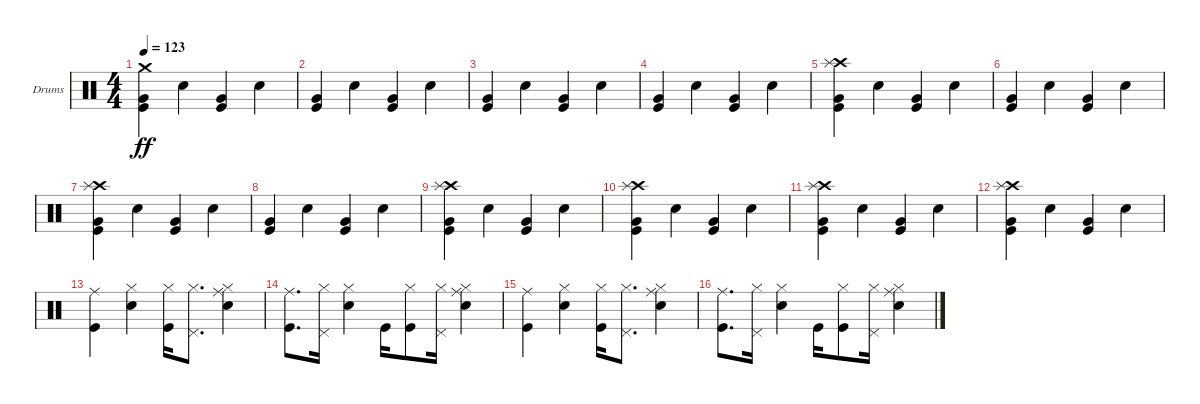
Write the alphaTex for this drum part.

\defaultSystemsLayout 4
\bracketExtendMode groupsimilarinstruments
\firstSystemTrackNameOrientation horizontal
\otherSystemsTrackNameOrientation horizontal
\track ("Drumkit" "Drums") {instrument percussion}
\staff {score}
\articulation defaults
\ts (4 4)
\tempo 123
\clef neutral
\scale
0.333333
\ks c
("Crash medium (hit)" "Kick (hit)" "Very Low Tom (hit)").4{dy ff} "Snare (hit) 2".4 ("Kick (hit)" "Very Low Tom (hit)").4 "Snare (hit) 2".4 |
\scale
0.333333 ("Kick (hit)" "Very Low Tom (hit)").4 "Snare (hit) 2".4 ("Kick (hit)" "Very Low Tom (hit)").4 "Snare (hit) 2".4 |
\scale
0.333333 ("Kick (hit)" "Very Low Tom (hit)").4 "Snare (hit) 2".4 ("Kick (hit)" "Very Low Tom (hit)").4 "Snare (hit) 2".4 |
\scale
0.333333 ("Kick (hit)" "Very Low Tom (hit)").4 "Snare (hit) 2".4 ("Kick (hit)" "Very Low Tom (hit)").4 "Snare (hit) 2".4 |
\scale
0.333333 ("Kick (hit)" "Very Low Tom (hit)" "Crash high (hit)" "Splash (hit)").4 "Snare (hit) 2".4 ("Kick (hit)" "Very Low Tom (hit)").4 "Snare (hit) 2".4 |
\scale
0.333333 ("Kick (hit)" "Very Low Tom (hit)").4 "Snare (hit) 2".4 ("Kick (hit)" "Very Low Tom (hit)").4 "Snare (hit) 2".4 |
\scale
0.333333 ("Kick (hit)" "Very Low Tom (hit)" "Crash high (hit)" "Splash (hit)").4 "Snare (hit) 2".4 ("Kick (hit)" "Very Low Tom (hit)").4 "Snare (hit) 2".4 |
\scale
0.333333 ("Kick (hit)" "Very Low Tom (hit)").4 "Snare (hit) 2".4 ("Kick (hit)" "Very Low Tom (hit)").4 "Snare (hit) 2".4 |
\scale
0.333333 ("Kick (hit)" "Very Low Tom (hit)" "Crash high (hit)" "Splash (hit)").4 "Snare (hit) 2".4 ("Kick (hit)" "Very Low Tom (hit)").4 "Snare (hit) 2".4 |
\scale
0.333333 ("Kick (hit)" "Very Low Tom (hit)" "Crash high (hit)" "Splash (hit)").4 "Snare (hit) 2".4 ("Kick (hit)" "Very Low Tom (hit)").4 "Snare (hit) 2".4 |
\scale
0.333333 ("Kick (hit)" "Very Low Tom (hit)" "Crash high (hit)" "Splash (hit)").4 "Snare (hit) 2".4 ("Kick (hit)" "Very Low Tom (hit)").4 "Snare (hit) 2".4 |
\scale
0.333333 ("Kick (hit)" "Very Low Tom (hit)" "Crash high (hit)" "Splash (hit)").4 "Snare (hit) 2".4 ("Kick (hit)" "Very Low Tom (hit)").4 "Snare (hit) 2".4 |
\scale
0.333333 ("Ride (middle)" "Kick (hit)").4 ("Hi-Hat (closed)" "Snare (hit) 2").4 ("Kick (hit)" "Hi-Hat (closed)").16 ("Hi-Hat (closed)" "Pedal Hi-Hat (hit)").8{d} ("Hi-Hat (closed)" "Snare (hit) 2" "Ride (middle)").4 |
\scale
0.333333 ("Ride (middle)" "Kick (hit)").8{d} ("Hi-Hat (closed)" "Pedal Hi-Hat (hit)").16 ("Hi-Hat (closed)" "Snare (hit) 2").4 "Kick (hit)".16 ("Kick (hit)" "Hi-Hat (closed)").8 ("Hi-Hat (closed)" "Pedal Hi-Hat (hit)").16 ("Hi-Hat (closed)" "Snare (hit) 2" "Ride (middle)").4 |
\scale
0.333333 ("Ride (middle)" "Kick (hit)").4 ("Hi-Hat (closed)" "Snare (hit) 2").4 ("Kick (hit)" "Hi-Hat (closed)").16 ("Hi-Hat (closed)" "Pedal Hi-Hat (hit)").8{d} ("Hi-Hat (closed)" "Snare (hit) 2" "Ride (middle)").4 |
\scale
0.333333 ("Ride (middle)" "Kick (hit)").8{d} ("Hi-Hat (closed)" "Pedal Hi-Hat (hit)").16 ("Hi-Hat (closed)" "Snare (hit) 2").4 "Kick (hit)".16 ("Kick (hit)" "Hi-Hat (closed)").8 ("Hi-Hat (closed)" "Pedal Hi-Hat (hit)").16 ("Hi-Hat (closed)" "Snare (hit) 2" "Ride (middle)").4
